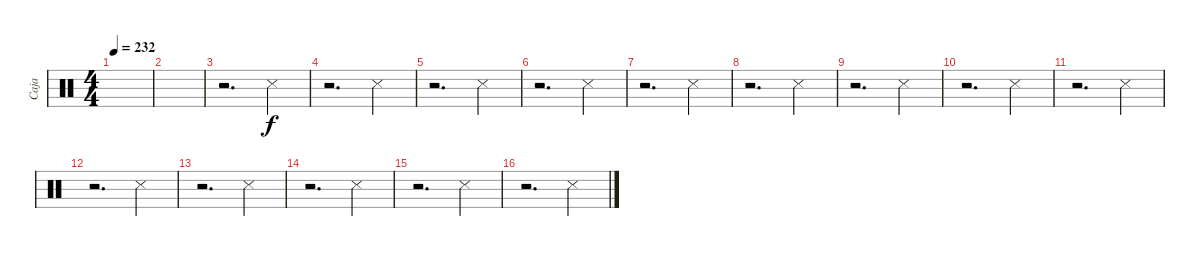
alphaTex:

\track ("Caja" "Caja") {instrument percussion}
\staff {score}
\articulation defaults
\ts (4 4)
\tempo 232
\clef neutral
\ks c
|
|
r.2{d} "Snare (side stick) 3".4 |
r.2{d} "Snare (side stick) 3".4 |
r.2{d} "Snare (side stick) 3".4 |
r.2{d} "Snare (side stick) 3".4 |
r.2{d} "Snare (side stick) 3".4 |
r.2{d} "Snare (side stick) 3".4 |
r.2{d} "Snare (side stick) 3".4 |
r.2{d} "Snare (side stick) 3".4 |
r.2{d} "Snare (side stick) 3".4 |
r.2{d} "Snare (side stick) 3".4 |
r.2{d} "Snare (side stick) 3".4 |
r.2{d} "Snare (side stick) 3".4 |
r.2{d} "Snare (side stick) 3".4 |
r.2{d} "Snare (side stick) 3".4
